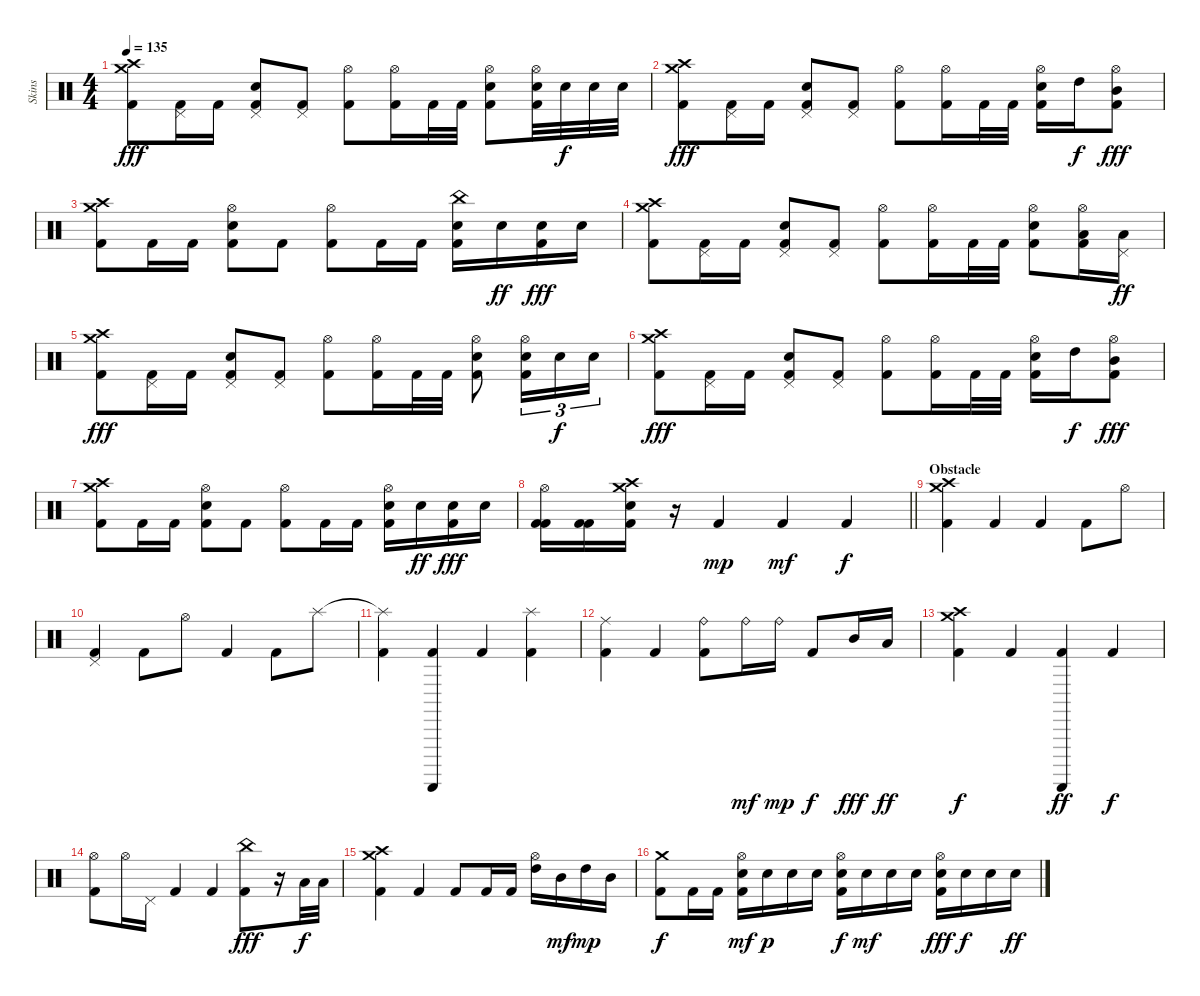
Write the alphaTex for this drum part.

\track ("Skins" "Skins") {instrument percussion}
\staff {score}
\articulation defaults
\ts (4 4)
\tempo 135
\clef neutral
\ks c
("Crash medium (hit)" "Crash high (hit)" "Kick (hit) 2").8{dy fff} ("Pedal Hi-Hat (hit)" "Kick (hit) 2").16 "Kick (hit) 2".16 ("Pedal Hi-Hat (hit)" "Snare (hit) 2" "Kick (hit) 2").8 ("Pedal Hi-Hat (hit)" "Kick (hit) 2").8 ("Hi-Hat (open)" "Kick (hit) 2").8 ("Hi-Hat (open)" "Kick (hit) 2").16 "Kick (hit) 2".32 "Kick (hit) 2".32 ("Hi-Hat (open)" "Snare (hit) 2" "Kick (hit) 2").8 ("Hi-Hat (open)" "Snare (hit) 2" "Kick (hit) 2").32 "Snare (hit) 2".32{dy f} "Snare (hit) 2".32 "Snare (hit) 2".32 |
("Crash medium (hit)" "Crash high (hit)" "Kick (hit) 2").8{dy fff} ("Pedal Hi-Hat (hit)" "Kick (hit) 2").16 "Kick (hit) 2".16 ("Pedal Hi-Hat (hit)" "Snare (hit) 2" "Kick (hit) 2").8 ("Pedal Hi-Hat (hit)" "Kick (hit) 2").8 ("Hi-Hat (open)" "Kick (hit) 2").8 ("Hi-Hat (open)" "Kick (hit) 2").16 "Kick (hit) 2".32 "Kick (hit) 2".32 ("Hi-Hat (open)" "Snare (hit) 2" "Kick (hit) 2").16 "High Tom (hit)".16{dy f} ("Hi-Hat (open)" "Mid Tom (hit)" "Kick (hit) 2").8{dy fff} |
("Crash medium (hit)" "Crash high (hit)" "Kick (hit) 2").8 "Kick (hit) 2".16 "Kick (hit) 2".16 ("Hi-Hat (open)" "Snare (hit) 2" "Kick (hit) 2").8 "Kick (hit) 2".8 ("Hi-Hat (open)" "Kick (hit) 2").8 "Kick (hit) 2".16 "Kick (hit) 2".16 ("China (hit)" "Snare (hit) 2" "Kick (hit) 2").16 "Snare (hit) 2".16{dy ff} ("Snare (hit) 2" "Kick (hit) 2").16{dy fff} "Snare (hit) 2".16 |
("Crash medium (hit)" "Crash high (hit)" "Kick (hit) 2").8 ("Pedal Hi-Hat (hit)" "Kick (hit) 2").16 "Kick (hit) 2".16 ("Pedal Hi-Hat (hit)" "Snare (hit) 2" "Kick (hit) 2").8 ("Pedal Hi-Hat (hit)" "Kick (hit) 2").8 ("Hi-Hat (open)" "Kick (hit) 2").8 ("Hi-Hat (open)" "Kick (hit) 2").16 "Kick (hit) 2".32 "Kick (hit) 2".32 ("Hi-Hat (open)" "Snare (hit) 2" "Kick (hit) 2").8 ("Hi-Hat (open)" "Low Tom (hit)" "Kick (hit) 2").16 ("Pedal Hi-Hat (hit)" "Low Tom (hit)").16{dy ff} |
("Crash medium (hit)" "Crash high (hit)" "Kick (hit) 2").8{dy fff} ("Pedal Hi-Hat (hit)" "Kick (hit) 2").16 "Kick (hit) 2".16 ("Pedal Hi-Hat (hit)" "Snare (hit) 2" "Kick (hit) 2").8 ("Pedal Hi-Hat (hit)" "Kick (hit) 2").8 ("Hi-Hat (open)" "Kick (hit) 2").8 ("Hi-Hat (open)" "Kick (hit) 2").16 "Kick (hit) 2".32 "Kick (hit) 2".32 ("Hi-Hat (open)" "Snare (hit) 2" "Kick (hit) 2").8 ("Hi-Hat (open)" "Snare (hit) 2" "Kick (hit) 2").16{tu (3 2)} "Snare (hit) 2".16{tu (3 2) dy f} "Snare (hit) 2".16{tu (3 2)} |
("Crash medium (hit)" "Crash high (hit)" "Kick (hit) 2").8{dy fff} ("Pedal Hi-Hat (hit)" "Kick (hit) 2").16 "Kick (hit) 2".16 ("Pedal Hi-Hat (hit)" "Snare (hit) 2" "Kick (hit) 2").8 ("Pedal Hi-Hat (hit)" "Kick (hit) 2").8 ("Hi-Hat (open)" "Kick (hit) 2").8 ("Hi-Hat (open)" "Kick (hit) 2").16 "Kick (hit) 2".32 "Kick (hit) 2".32 ("Hi-Hat (open)" "Snare (hit) 2" "Kick (hit) 2").16 "High Tom (hit)".16{dy f} ("Hi-Hat (open)" "Mid Tom (hit)" "Kick (hit) 2").8{dy fff} |
("Crash medium (hit)" "Crash high (hit)" "Kick (hit) 2").8 "Kick (hit) 2".16 "Kick (hit) 2".16 ("Hi-Hat (open)" "Snare (hit) 2" "Kick (hit) 2").8 "Kick (hit) 2".8 ("Hi-Hat (open)" "Kick (hit) 2").8 "Kick (hit) 2".16 "Kick (hit) 2".16 ("Hi-Hat (open)" "Snare (hit) 2" "Kick (hit) 2").16 "Snare (hit) 2".16{dy ff} ("Snare (hit) 2" "Kick (hit) 2").16{dy fff} "Snare (hit) 2".16 |
\barLineRight lightlight
("Hi-Hat (open)" "Kick (hit) 2" "Kick (hit) 2").16 ("Kick (hit) 2" "Kick (hit) 2").16 ("Crash medium (hit)" "Crash high (hit)" "Snare (hit) 2" "Kick (hit) 2").16 r.16 "Kick (hit) 2".4{dy mp} "Kick (hit) 2".4{dy mf} "Kick (hit) 2".4{dy f} |
\section ("" "Obstacle")
("Crash medium (hit)" "Crash high (hit)" "Kick (hit) 2").4 "Kick (hit) 2".4 "Kick (hit) 2".4 "Kick (hit) 2".8 "Hi-Hat (open)".8 |
("Pedal Hi-Hat (hit)" "Kick (hit) 2").4 "Kick (hit) 2".8 "Hi-Hat (open)".8 "Kick (hit) 2".4 "Kick (hit) 2".8 "Splash (hit)".8 |
("Splash (hit)"{t} "Kick (hit) 2").4 ("Guiro (scrap-return)" "Kick (hit) 2").4 "Kick (hit) 2".4 ("Splash (hit)" "Kick (hit) 2").4 |
("Ride (middle)" "Kick (hit) 2").4 "Kick (hit) 2".4 ("Ride (bell)" "Kick (hit) 2").8 "Ride (bell)".16{dy mf} "Ride (bell)".16{dy mp} "Kick (hit) 2".8{dy f} "Mid Tom (hit)".16{dy fff} "Low Tom (hit)".16{dy ff} |
("Crash medium (hit)" "Crash high (hit)" "Kick (hit) 2").4{dy f} "Kick (hit) 2".4 ("Guiro (scrap-return)" "Kick (hit) 2").4{dy ff} "Kick (hit) 2".4{dy f} |
("Hi-Hat (open)" "Kick (hit) 2").8 "Hi-Hat (open)".16 "Pedal Hi-Hat (hit)".16 "Kick (hit) 2".4 "Kick (hit) 2".4 ("China (hit)" "Kick (hit) 2").8{dy fff} r.16 "Low Tom (hit)".32{dy f} "Low Tom (hit)".32 |
("Crash medium (hit)" "Crash high (hit)" "Kick (hit) 2").4 "Kick (hit) 2".4 "Kick (hit) 2".8 "Kick (hit) 2".16 "Kick (hit) 2".16 ("Hi-Hat (open)" "High Tom (hit)").16 "Mid Tom (hit)".16{dy mf} "High Tom (hit)".16{dy mp} "Mid Tom (hit)".16 |
("Crash medium (hit)" "Kick (hit) 2").8{dy f} "Kick (hit) 2".16 "Kick (hit) 2".16 ("Hi-Hat (open)" "Snare (hit) 2" "Kick (hit) 2").16{dy mf} "Snare (hit) 2".16{dy p} "Snare (hit) 2".16 "Snare (hit) 2".16 ("Hi-Hat (open)" "Snare (hit) 2" "Kick (hit) 2").16{dy f} "Snare (hit) 2".16{dy mf} "Snare (hit) 2".16 "Snare (hit) 2".16 ("Hi-Hat (open)" "Snare (hit) 2" "Kick (hit) 2").16{dy fff} "Snare (hit) 2".16{dy f} "Snare (hit) 2".16 "Snare (hit) 2".16{dy ff}
